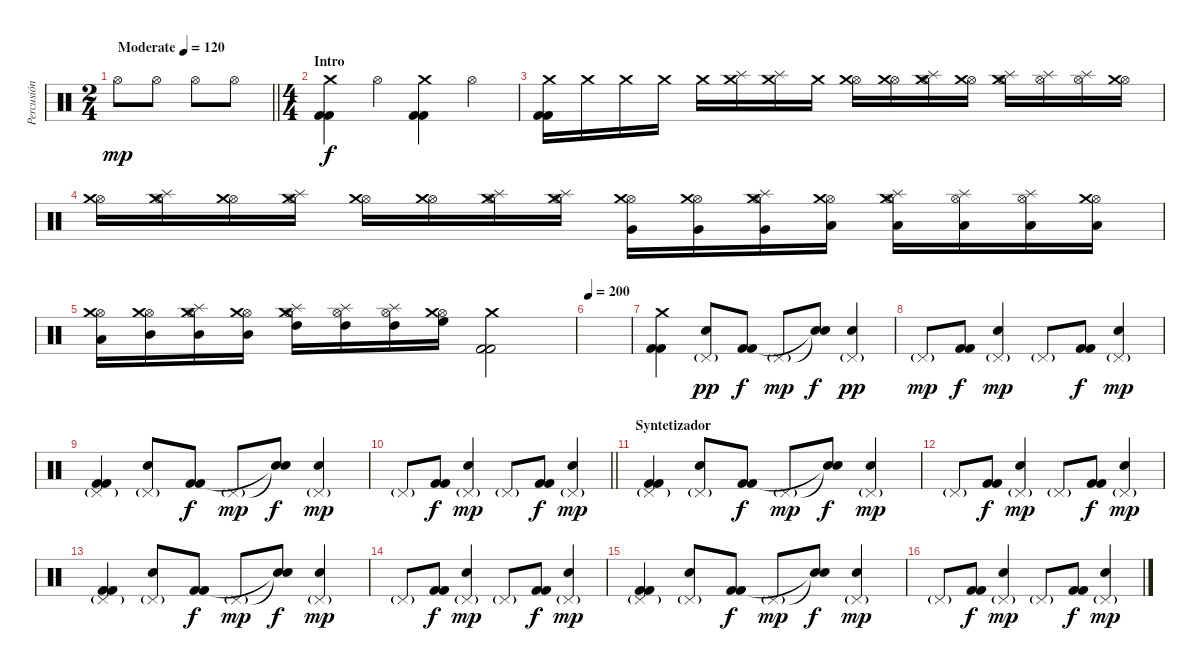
\track ("Percusión" "Percusión") {instrument percussion}
\staff {score}
\articulation defaults
\ts (2 4)
\tempo (120 "Moderate")
\clef neutral
\barLineRight lightlight
\ks c "Hi-Hat (open)".8{dy mp} "Hi-Hat (open)".8 "Hi-Hat (open)".8 "Hi-Hat (open)".8
|
\ts (4 4)
\section ("" "Intro")
("Crash medium (hit)" "Kick (hit) 2" "Kick (hit) 2").4{dy f} "Hi-Hat (open)".4 ("Crash medium (hit)" "Kick (hit) 2" "Kick (hit) 2").4 "Hi-Hat (open)".4 |
("Crash medium (hit)" "Kick (hit) 2" "Kick (hit) 2").16 "Crash medium (hit)".16 "Crash medium (hit)".16 "Crash medium (hit)".16 "Crash medium (hit)".16 ("Crash medium (hit)" "Splash (hit)").16 ("Crash medium (hit)" "Splash (hit)").16 "Crash medium (hit)".16 ("Hi-Hat (open)" "Crash medium (hit)").16 ("Hi-Hat (open)" "Crash medium (hit)").16 ("Hi-Hat (open)" "Crash medium (hit)" "Splash (hit)").16 ("Hi-Hat (open)" "Crash medium (hit)").16 ("Hi-Hat (open)" "Crash medium (hit)" "Splash (hit)").16 ("Hi-Hat (open)" "Splash (hit)").16 ("Hi-Hat (open)" "Splash (hit)").16 ("Hi-Hat (open)" "Crash medium (hit)").16 |
("Hi-Hat (open)" "Crash medium (hit)").16 ("Hi-Hat (open)" "Crash medium (hit)" "Splash (hit)").16 ("Hi-Hat (open)" "Crash medium (hit)").16 ("Hi-Hat (open)" "Crash medium (hit)" "Splash (hit)").16 ("Hi-Hat (open)" "Crash medium (hit)").16 ("Hi-Hat (open)" "Crash medium (hit)").16 ("Hi-Hat (open)" "Crash medium (hit)" "Splash (hit)").16 ("Hi-Hat (open)" "Crash medium (hit)" "Splash (hit)").16 ("Hi-Hat (open)" "Crash medium (hit)" "Very Low Tom (hit)").16 ("Hi-Hat (open)" "Crash medium (hit)" "Very Low Tom (hit)").16 ("Hi-Hat (open)" "Crash medium (hit)" "Splash (hit)" "Very Low Tom (hit)").16 ("Hi-Hat (open)" "Crash medium (hit)" "Low Floor Tom (hit)").16 ("Hi-Hat (open)" "Crash medium (hit)" "Splash (hit)" "Low Floor Tom (hit)").16 ("Hi-Hat (open)" "Splash (hit)" "Low Floor Tom (hit)").16 ("Hi-Hat (open)" "Splash (hit)" "Low Tom (hit)").16 ("Hi-Hat (open)" "Crash medium (hit)" "Low Tom (hit)").16 |
("Hi-Hat (open)" "Crash medium (hit)" "Low Tom (hit)").16 ("Hi-Hat (open)" "Crash medium (hit)" "Mid Tom (hit)").16 ("Hi-Hat (open)" "Crash medium (hit)" "Splash (hit)" "Mid Tom (hit)").16 ("Hi-Hat (open)" "Crash medium (hit)" "Mid Tom (hit)").16 ("Hi-Hat (open)" "Crash medium (hit)" "Splash (hit)" "High Tom (hit)").16 ("Hi-Hat (open)" "Splash (hit)" "High Tom (hit)").16 ("Hi-Hat (open)" "Splash (hit)" "High Tom (hit)").16 ("Hi-Hat (open)" "Crash medium (hit)" "High Floor Tom (hit)").16 ("Crash medium (hit)" "Kick (hit) 2" "Kick (hit) 2").2 |
\tempo 200
|
("Crash medium (hit)" "Kick (hit) 2" "Kick (hit) 2").4 ("Pedal Hi-Hat (hit)"{g} "Electric Snare (hit)").8{dy pp} ("Kick (hit) 2" "Kick (hit) 2").8{dy f} "Pedal Hi-Hat (hit)"{g}.8{dy mp} ("Snare (hit)"{t} "Snare (hit)"{t}).8{dy f} ("Pedal Hi-Hat (hit)"{g} "Electric Snare (hit)").4{dy pp} |
"Pedal Hi-Hat (hit)"{g}.8{dy mp} ("Kick (hit) 2" "Kick (hit) 2").8{dy f} ("Pedal Hi-Hat (hit)"{g} "Electric Snare (hit)").4{dy mp} "Pedal Hi-Hat (hit)"{g}.8 ("Kick (hit) 2" "Kick (hit) 2").8{dy f} ("Pedal Hi-Hat (hit)"{g} "Electric Snare (hit)").4{dy mp} |
("Pedal Hi-Hat (hit)"{g} "Kick (hit) 2" "Kick (hit) 2").4 ("Pedal Hi-Hat (hit)"{g} "Electric Snare (hit)").8 ("Kick (hit) 2" "Kick (hit) 2").8{dy f} "Pedal Hi-Hat (hit)"{g}.8{dy mp} ("Snare (hit)"{t} "Snare (hit)"{t}).8{dy f} ("Pedal Hi-Hat (hit)"{g} "Electric Snare (hit)").4{dy mp} |
\barLineRight lightlight "Pedal Hi-Hat (hit)"{g}.8
("Kick (hit) 2" "Kick (hit) 2").8{dy f} ("Pedal Hi-Hat (hit)"{g} "Electric Snare (hit)").4{dy mp} "Pedal Hi-Hat (hit)"{g}.8 ("Kick (hit) 2" "Kick (hit) 2").8{dy f} ("Pedal Hi-Hat (hit)"{g} "Electric Snare (hit)").4{dy mp} |
\section ("" "Syntetizador")
("Pedal Hi-Hat (hit)"{g} "Kick (hit) 2" "Kick (hit) 2").4 ("Pedal Hi-Hat (hit)"{g} "Electric Snare (hit)").8 ("Kick (hit) 2" "Kick (hit) 2").8{dy f} "Pedal Hi-Hat (hit)"{g}.8{dy mp} ("Snare (hit)"{t} "Snare (hit)"{t}).8{dy f} ("Pedal Hi-Hat (hit)"{g} "Electric Snare (hit)").4{dy mp} |
"Pedal Hi-Hat (hit)"{g}.8 ("Kick (hit) 2" "Kick (hit) 2").8{dy f} ("Pedal Hi-Hat (hit)"{g} "Electric Snare (hit)").4{dy mp} "Pedal Hi-Hat (hit)"{g}.8 ("Kick (hit) 2" "Kick (hit) 2").8{dy f} ("Pedal Hi-Hat (hit)"{g} "Electric Snare (hit)").4{dy mp} |
("Pedal Hi-Hat (hit)"{g} "Kick (hit) 2" "Kick (hit) 2").4 ("Pedal Hi-Hat (hit)"{g} "Electric Snare (hit)").8 ("Kick (hit) 2" "Kick (hit) 2").8{dy f} "Pedal Hi-Hat (hit)"{g}.8{dy mp} ("Snare (hit)"{t} "Snare (hit)"{t}).8{dy f} ("Pedal Hi-Hat (hit)"{g} "Electric Snare (hit)").4{dy mp} |
"Pedal Hi-Hat (hit)"{g}.8 ("Kick (hit) 2" "Kick (hit) 2").8{dy f} ("Pedal Hi-Hat (hit)"{g} "Electric Snare (hit)").4{dy mp} "Pedal Hi-Hat (hit)"{g}.8 ("Kick (hit) 2" "Kick (hit) 2").8{dy f} ("Pedal Hi-Hat (hit)"{g} "Electric Snare (hit)").4{dy mp} |
("Pedal Hi-Hat (hit)"{g} "Kick (hit) 2" "Kick (hit) 2").4 ("Pedal Hi-Hat (hit)"{g} "Electric Snare (hit)").8 ("Kick (hit) 2" "Kick (hit) 2").8{dy f} "Pedal Hi-Hat (hit)"{g}.8{dy mp} ("Snare (hit)"{t} "Snare (hit)"{t}).8{dy f} ("Pedal Hi-Hat (hit)"{g} "Electric Snare (hit)").4{dy mp} |
"Pedal Hi-Hat (hit)"{g}.8 ("Kick (hit) 2" "Kick (hit) 2").8{dy f} ("Pedal Hi-Hat (hit)"{g} "Electric Snare (hit)").4{dy mp} "Pedal Hi-Hat (hit)"{g}.8 ("Kick (hit) 2" "Kick (hit) 2").8{dy f} ("Pedal Hi-Hat (hit)"{g} "Electric Snare (hit)").4{dy mp}
